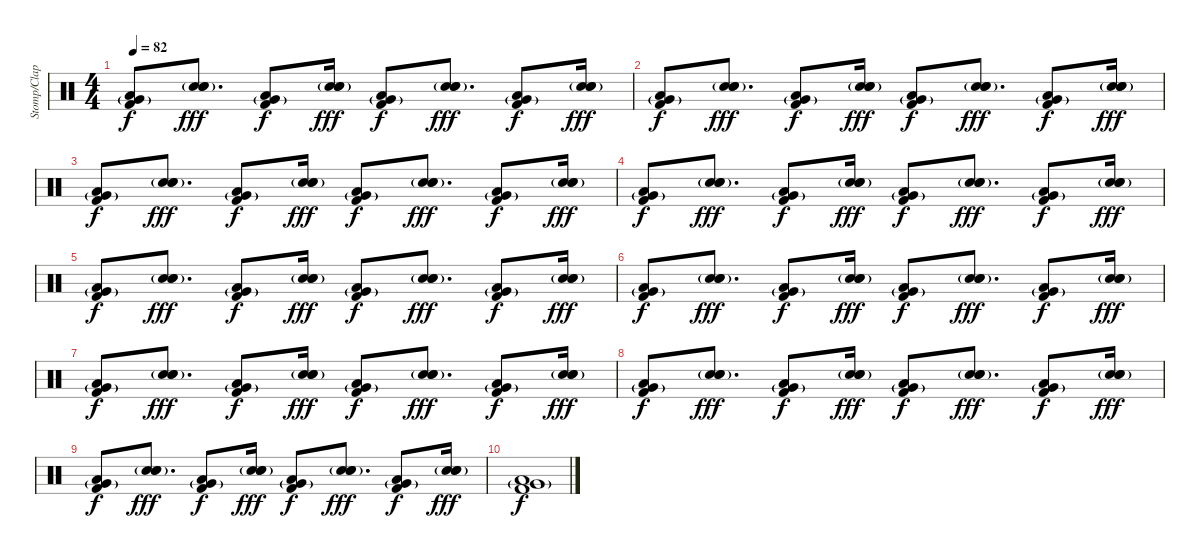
\track ("Stomp/Clap" "Stomp/Clap") {instrument percussion}
\staff {score}
\articulation defaults
\ts (4 4)
\tempo 82
\clef neutral
\ks c
("Kick (hit) 2" "Low Floor Tom (hit)" "Very Low Tom (hit)"{g}).8{dy f} ("Hand Clap (hit)" "Snare (hit) 2"{g} "Hand Clap (hit)").8{d dy fff} ("Kick (hit) 2" "Low Floor Tom (hit)" "Very Low Tom (hit)"{g}).8{dy f} ("Hand Clap (hit)" "Snare (hit) 2"{g} "Hand Clap (hit)").16{dy fff} ("Kick (hit) 2" "Low Floor Tom (hit)" "Very Low Tom (hit)"{g}).8{dy f} ("Hand Clap (hit)" "Snare (hit) 2"{g} "Hand Clap (hit)").8{d dy fff} ("Kick (hit) 2" "Low Floor Tom (hit)" "Very Low Tom (hit)"{g}).8{dy f} ("Hand Clap (hit)" "Snare (hit) 2"{g} "Hand Clap (hit)").16{dy fff} |
("Kick (hit) 2" "Low Floor Tom (hit)" "Very Low Tom (hit)"{g}).8{dy f} ("Hand Clap (hit)" "Snare (hit) 2"{g} "Hand Clap (hit)").8{d dy fff} ("Kick (hit) 2" "Low Floor Tom (hit)" "Very Low Tom (hit)"{g}).8{dy f} ("Hand Clap (hit)" "Snare (hit) 2"{g} "Hand Clap (hit)").16{dy fff} ("Kick (hit) 2" "Low Floor Tom (hit)" "Very Low Tom (hit)"{g}).8{dy f} ("Hand Clap (hit)" "Snare (hit) 2"{g} "Hand Clap (hit)").8{d dy fff} ("Kick (hit) 2" "Low Floor Tom (hit)" "Very Low Tom (hit)"{g}).8{dy f} ("Hand Clap (hit)" "Snare (hit) 2"{g} "Hand Clap (hit)").16{dy fff} |
("Kick (hit) 2" "Low Floor Tom (hit)" "Very Low Tom (hit)"{g}).8{dy f} ("Hand Clap (hit)" "Snare (hit) 2"{g} "Hand Clap (hit)").8{d dy fff} ("Kick (hit) 2" "Low Floor Tom (hit)" "Very Low Tom (hit)"{g}).8{dy f} ("Hand Clap (hit)" "Snare (hit) 2"{g} "Hand Clap (hit)").16{dy fff} ("Kick (hit) 2" "Low Floor Tom (hit)" "Very Low Tom (hit)"{g}).8{dy f} ("Hand Clap (hit)" "Snare (hit) 2"{g} "Hand Clap (hit)").8{d dy fff} ("Kick (hit) 2" "Low Floor Tom (hit)" "Very Low Tom (hit)"{g}).8{dy f} ("Hand Clap (hit)" "Snare (hit) 2"{g} "Hand Clap (hit)").16{dy fff} |
("Kick (hit) 2" "Low Floor Tom (hit)" "Very Low Tom (hit)"{g}).8{dy f} ("Hand Clap (hit)" "Snare (hit) 2"{g} "Hand Clap (hit)").8{d dy fff} ("Kick (hit) 2" "Low Floor Tom (hit)" "Very Low Tom (hit)"{g}).8{dy f} ("Hand Clap (hit)" "Snare (hit) 2"{g} "Hand Clap (hit)").16{dy fff} ("Kick (hit) 2" "Low Floor Tom (hit)" "Very Low Tom (hit)"{g}).8{dy f} ("Hand Clap (hit)" "Snare (hit) 2"{g} "Hand Clap (hit)").8{d dy fff} ("Kick (hit) 2" "Low Floor Tom (hit)" "Very Low Tom (hit)"{g}).8{dy f} ("Hand Clap (hit)" "Snare (hit) 2"{g} "Hand Clap (hit)").16{dy fff} |
("Kick (hit) 2" "Low Floor Tom (hit)" "Very Low Tom (hit)"{g}).8{dy f} ("Hand Clap (hit)" "Snare (hit) 2"{g} "Hand Clap (hit)").8{d dy fff} ("Kick (hit) 2" "Low Floor Tom (hit)" "Very Low Tom (hit)"{g}).8{dy f} ("Hand Clap (hit)" "Snare (hit) 2"{g} "Hand Clap (hit)").16{dy fff} ("Kick (hit) 2" "Low Floor Tom (hit)" "Very Low Tom (hit)"{g}).8{dy f} ("Hand Clap (hit)" "Snare (hit) 2"{g} "Hand Clap (hit)").8{d dy fff} ("Kick (hit) 2" "Low Floor Tom (hit)" "Very Low Tom (hit)"{g}).8{dy f} ("Hand Clap (hit)" "Snare (hit) 2"{g} "Hand Clap (hit)").16{dy fff} |
("Kick (hit) 2" "Low Floor Tom (hit)" "Very Low Tom (hit)"{g}).8{dy f} ("Hand Clap (hit)" "Snare (hit) 2"{g} "Hand Clap (hit)").8{d dy fff} ("Kick (hit) 2" "Low Floor Tom (hit)" "Very Low Tom (hit)"{g}).8{dy f} ("Hand Clap (hit)" "Snare (hit) 2"{g} "Hand Clap (hit)").16{dy fff} ("Kick (hit) 2" "Low Floor Tom (hit)" "Very Low Tom (hit)"{g}).8{dy f} ("Hand Clap (hit)" "Snare (hit) 2"{g} "Hand Clap (hit)").8{d dy fff} ("Kick (hit) 2" "Low Floor Tom (hit)" "Very Low Tom (hit)"{g}).8{dy f} ("Hand Clap (hit)" "Snare (hit) 2"{g} "Hand Clap (hit)").16{dy fff} |
("Kick (hit) 2" "Low Floor Tom (hit)" "Very Low Tom (hit)"{g}).8{dy f} ("Hand Clap (hit)" "Snare (hit) 2"{g} "Hand Clap (hit)").8{d dy fff} ("Kick (hit) 2" "Low Floor Tom (hit)" "Very Low Tom (hit)"{g}).8{dy f} ("Hand Clap (hit)" "Snare (hit) 2"{g} "Hand Clap (hit)").16{dy fff} ("Kick (hit) 2" "Low Floor Tom (hit)" "Very Low Tom (hit)"{g}).8{dy f} ("Hand Clap (hit)" "Snare (hit) 2"{g} "Hand Clap (hit)").8{d dy fff} ("Kick (hit) 2" "Low Floor Tom (hit)" "Very Low Tom (hit)"{g}).8{dy f} ("Hand Clap (hit)" "Snare (hit) 2"{g} "Hand Clap (hit)").16{dy fff} |
("Kick (hit) 2" "Low Floor Tom (hit)" "Very Low Tom (hit)"{g}).8{dy f} ("Hand Clap (hit)" "Snare (hit) 2"{g} "Hand Clap (hit)").8{d dy fff} ("Kick (hit) 2" "Low Floor Tom (hit)" "Very Low Tom (hit)"{g}).8{dy f} ("Hand Clap (hit)" "Snare (hit) 2"{g} "Hand Clap (hit)").16{dy fff} ("Kick (hit) 2" "Low Floor Tom (hit)" "Very Low Tom (hit)"{g}).8{dy f} ("Hand Clap (hit)" "Snare (hit) 2"{g} "Hand Clap (hit)").8{d dy fff} ("Kick (hit) 2" "Low Floor Tom (hit)" "Very Low Tom (hit)"{g}).8{dy f} ("Hand Clap (hit)" "Snare (hit) 2"{g} "Hand Clap (hit)").16{dy fff} |
("Kick (hit) 2" "Low Floor Tom (hit)" "Very Low Tom (hit)"{g}).8{dy f} ("Hand Clap (hit)" "Snare (hit) 2"{g} "Hand Clap (hit)").8{d dy fff} ("Kick (hit) 2" "Low Floor Tom (hit)" "Very Low Tom (hit)"{g}).8{dy f} ("Hand Clap (hit)" "Snare (hit) 2"{g} "Hand Clap (hit)").16{dy fff} ("Kick (hit) 2" "Low Floor Tom (hit)" "Very Low Tom (hit)"{g}).8{dy f} ("Hand Clap (hit)" "Snare (hit) 2"{g} "Hand Clap (hit)").8{d dy fff} ("Kick (hit) 2" "Low Floor Tom (hit)" "Very Low Tom (hit)"{g}).8{dy f} ("Hand Clap (hit)" "Snare (hit) 2"{g} "Hand Clap (hit)").16{dy fff} |
("Kick (hit) 2" "Low Floor Tom (hit)" "Very Low Tom (hit)"{g}).1{dy f}
